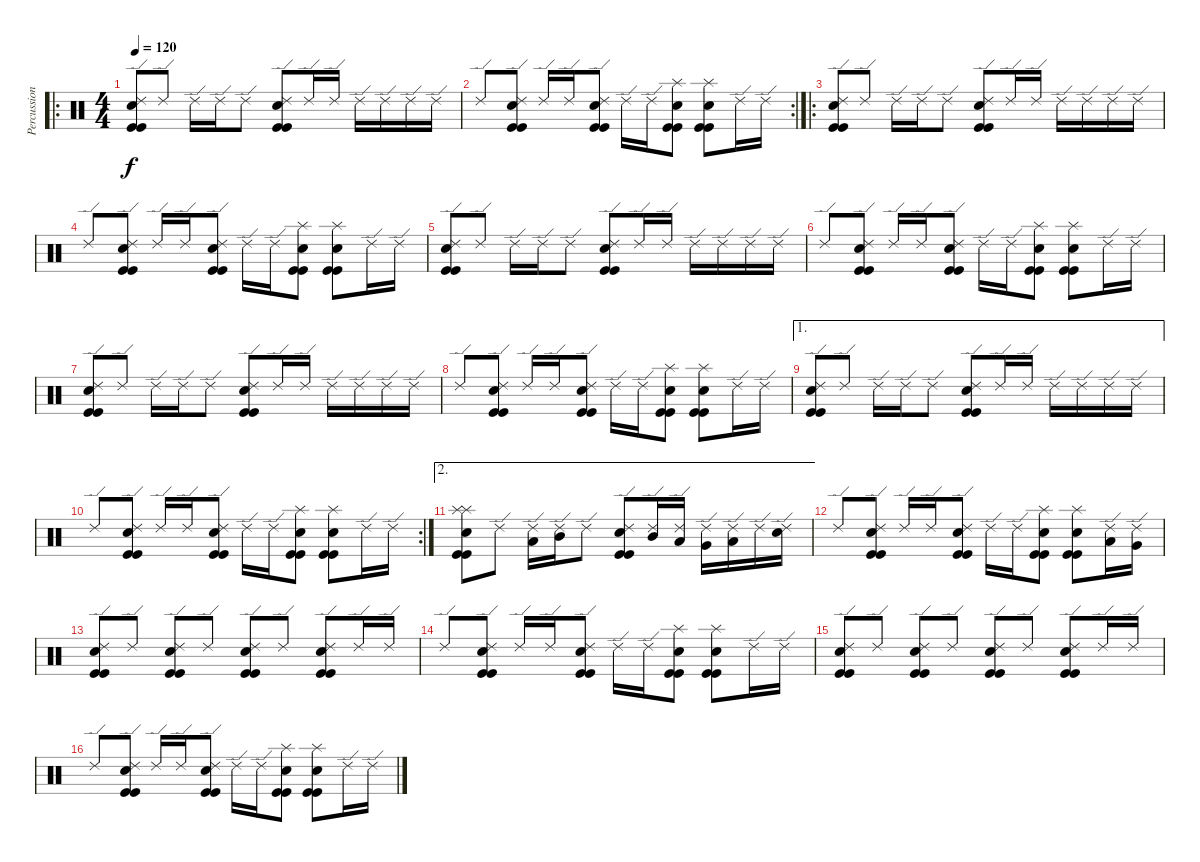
\track ("Percussions" "Percussion") {instrument percussion}
\staff {score}
\articulation defaults
\ro
\ts (4 4)
\tempo 120
\clef neutral
\ks c
("Ride (edge) 2" "Snare (hit) 2" "Kick (hit)" "Kick (hit)").8{dy f} "Ride (edge) 2".8 "Ride (edge) 2".16 "Ride (edge) 2".16 "Ride (edge) 2".8 ("Ride (edge) 2" "Snare (hit) 2" "Kick (hit)" "Kick (hit)").8 "Ride (edge) 2".16 "Ride (edge) 2".16 "Ride (edge) 2".16 "Ride (edge) 2".16 "Ride (edge) 2".16 "Ride (edge) 2".16 |
\rc 2 "Ride (edge) 2".8
("Ride (edge) 2" "Snare (hit) 2" "Kick (hit)" "Kick (hit)").8 "Ride (edge) 2".16 "Ride (edge) 2".16 ("Ride (edge) 2" "Snare (hit) 2" "Kick (hit)" "Kick (hit)").8 "Ride (edge) 2".16 "Ride (edge) 2".16 ("Splash (hit)" "Snare (hit) 2" "Kick (hit)" "Kick (hit)").8 ("Splash (hit)" "Snare (hit) 2" "Kick (hit)" "Kick (hit)").8 "Ride (edge) 2".16 "Ride (edge) 2".16 |
\ro
("Ride (edge) 2" "Snare (hit) 2" "Kick (hit)" "Kick (hit)").8 "Ride (edge) 2".8 "Ride (edge) 2".16 "Ride (edge) 2".16 "Ride (edge) 2".8 ("Ride (edge) 2" "Snare (hit) 2" "Kick (hit)" "Kick (hit)").8 "Ride (edge) 2".16 "Ride (edge) 2".16 "Ride (edge) 2".16 "Ride (edge) 2".16 "Ride (edge) 2".16 "Ride (edge) 2".16 |
"Ride (edge) 2".8 ("Ride (edge) 2" "Snare (hit) 2" "Kick (hit)" "Kick (hit)").8 "Ride (edge) 2".16 "Ride (edge) 2".16 ("Ride (edge) 2" "Snare (hit) 2" "Kick (hit)" "Kick (hit)").8 "Ride (edge) 2".16 "Ride (edge) 2".16 ("Splash (hit)" "Snare (hit) 2" "Kick (hit)" "Kick (hit)").8 ("Splash (hit)" "Snare (hit) 2" "Kick (hit)" "Kick (hit)").8 "Ride (edge) 2".16 "Ride (edge) 2".16 |
("Ride (edge) 2" "Snare (hit) 2" "Kick (hit)" "Kick (hit)").8 "Ride (edge) 2".8 "Ride (edge) 2".16 "Ride (edge) 2".16 "Ride (edge) 2".8 ("Ride (edge) 2" "Snare (hit) 2" "Kick (hit)" "Kick (hit)").8 "Ride (edge) 2".16 "Ride (edge) 2".16 "Ride (edge) 2".16 "Ride (edge) 2".16 "Ride (edge) 2".16 "Ride (edge) 2".16 |
"Ride (edge) 2".8 ("Ride (edge) 2" "Snare (hit) 2" "Kick (hit)" "Kick (hit)").8 "Ride (edge) 2".16 "Ride (edge) 2".16 ("Ride (edge) 2" "Snare (hit) 2" "Kick (hit)" "Kick (hit)").8 "Ride (edge) 2".16 "Ride (edge) 2".16 ("Splash (hit)" "Snare (hit) 2" "Kick (hit)" "Kick (hit)").8 ("Splash (hit)" "Snare (hit) 2" "Kick (hit)" "Kick (hit)").8 "Ride (edge) 2".16 "Ride (edge) 2".16 |
("Ride (edge) 2" "Snare (hit) 2" "Kick (hit)" "Kick (hit)").8 "Ride (edge) 2".8 "Ride (edge) 2".16 "Ride (edge) 2".16 "Ride (edge) 2".8 ("Ride (edge) 2" "Snare (hit) 2" "Kick (hit)" "Kick (hit)").8 "Ride (edge) 2".16 "Ride (edge) 2".16 "Ride (edge) 2".16 "Ride (edge) 2".16 "Ride (edge) 2".16 "Ride (edge) 2".16 |
"Ride (edge) 2".8 ("Ride (edge) 2" "Snare (hit) 2" "Kick (hit)" "Kick (hit)").8 "Ride (edge) 2".16 "Ride (edge) 2".16 ("Ride (edge) 2" "Snare (hit) 2" "Kick (hit)" "Kick (hit)").8 "Ride (edge) 2".16 "Ride (edge) 2".16 ("Splash (hit)" "Snare (hit) 2" "Kick (hit)" "Kick (hit)").8 ("Splash (hit)" "Snare (hit) 2" "Kick (hit)" "Kick (hit)").8 "Ride (edge) 2".16 "Ride (edge) 2".16 |
\ae 1
("Ride (edge) 2" "Snare (hit) 2" "Kick (hit)" "Kick (hit)").8 "Ride (edge) 2".8 "Ride (edge) 2".16 "Ride (edge) 2".16 "Ride (edge) 2".8 ("Ride (edge) 2" "Snare (hit) 2" "Kick (hit)" "Kick (hit)").8 "Ride (edge) 2".16 "Ride (edge) 2".16 "Ride (edge) 2".16 "Ride (edge) 2".16 "Ride (edge) 2".16 "Ride (edge) 2".16 |
\rc 2 "Ride (edge) 2".8
("Ride (edge) 2" "Snare (hit) 2" "Kick (hit)" "Kick (hit)").8 "Ride (edge) 2".16 "Ride (edge) 2".16 ("Ride (edge) 2" "Snare (hit) 2" "Kick (hit)" "Kick (hit)").8 "Ride (edge) 2".16 "Ride (edge) 2".16 ("Splash (hit)" "Snare (hit) 2" "Kick (hit)" "Kick (hit)").8 ("Splash (hit)" "Snare (hit) 2" "Kick (hit)" "Kick (hit)").8 "Ride (edge) 2".16 "Ride (edge) 2".16 |
\ae 2
("Splash (hit)" "Splash (hit)" "Snare (hit) 2" "Kick (hit)" "Kick (hit)").8 "Ride (edge) 2".8 ("Ride (edge) 2" "Low Tom (hit)").16 ("Ride (edge) 2" "Mid Tom (hit)").16 "Ride (edge) 2".8 ("Ride (edge) 2" "Snare (hit) 2" "Kick (hit)" "Kick (hit)").8 ("Ride (edge) 2" "Mid Tom (hit)").16 ("Ride (edge) 2" "Low Tom (hit)").16 ("Ride (edge) 2" "Very Low Tom (hit)").16 ("Ride (edge) 2" "Low Floor Tom (hit)").16 "Ride (edge) 2".16 ("Ride (edge) 2" "Snare (hit) 2").16 |
"Ride (edge) 2".8 ("Ride (edge) 2" "Snare (hit) 2" "Kick (hit)" "Kick (hit)").8 "Ride (edge) 2".16 "Ride (edge) 2".16 ("Ride (edge) 2" "Snare (hit) 2" "Kick (hit)" "Kick (hit)").8 "Ride (edge) 2".16 "Ride (edge) 2".16 ("Splash (hit)" "Snare (hit) 2" "Kick (hit)" "Kick (hit)").8 ("Splash (hit)" "Snare (hit) 2" "Kick (hit)" "Kick (hit)").8 ("Ride (edge) 2" "Low Tom (hit)").16 ("Ride (edge) 2" "Very Low Tom (hit)").16 |
("Ride (edge) 2" "Snare (hit) 2" "Kick (hit)" "Kick (hit)").8 "Ride (edge) 2".8 ("Ride (edge) 2" "Snare (hit) 2" "Kick (hit)" "Kick (hit)").8 "Ride (edge) 2".8 ("Ride (edge) 2" "Snare (hit) 2" "Kick (hit)" "Kick (hit)").8 "Ride (edge) 2".8 ("Ride (edge) 2" "Snare (hit) 2" "Kick (hit)" "Kick (hit)").8 "Ride (edge) 2".16 "Ride (edge) 2".16 |
"Ride (edge) 2".8 ("Ride (edge) 2" "Snare (hit) 2" "Kick (hit)" "Kick (hit)").8 "Ride (edge) 2".16 "Ride (edge) 2".16 ("Ride (edge) 2" "Snare (hit) 2" "Kick (hit)" "Kick (hit)").8 "Ride (edge) 2".16 "Ride (edge) 2".16 ("Splash (hit)" "Snare (hit) 2" "Kick (hit)" "Kick (hit)").8 ("Splash (hit)" "Snare (hit) 2" "Kick (hit)" "Kick (hit)").8 "Ride (edge) 2".16 "Ride (edge) 2".16 |
("Ride (edge) 2" "Snare (hit) 2" "Kick (hit)" "Kick (hit)").8 "Ride (edge) 2".8 ("Ride (edge) 2" "Snare (hit) 2" "Kick (hit)" "Kick (hit)").8 "Ride (edge) 2".8 ("Ride (edge) 2" "Snare (hit) 2" "Kick (hit)" "Kick (hit)").8 "Ride (edge) 2".8 ("Ride (edge) 2" "Snare (hit) 2" "Kick (hit)" "Kick (hit)").8 "Ride (edge) 2".16 "Ride (edge) 2".16 |
"Ride (edge) 2".8 ("Ride (edge) 2" "Snare (hit) 2" "Kick (hit)" "Kick (hit)").8 "Ride (edge) 2".16 "Ride (edge) 2".16 ("Ride (edge) 2" "Snare (hit) 2" "Kick (hit)" "Kick (hit)").8 "Ride (edge) 2".16 "Ride (edge) 2".16 ("Splash (hit)" "Snare (hit) 2" "Kick (hit)" "Kick (hit)").8 ("Splash (hit)" "Snare (hit) 2" "Kick (hit)" "Kick (hit)").8 "Ride (edge) 2".16 "Ride (edge) 2".16
